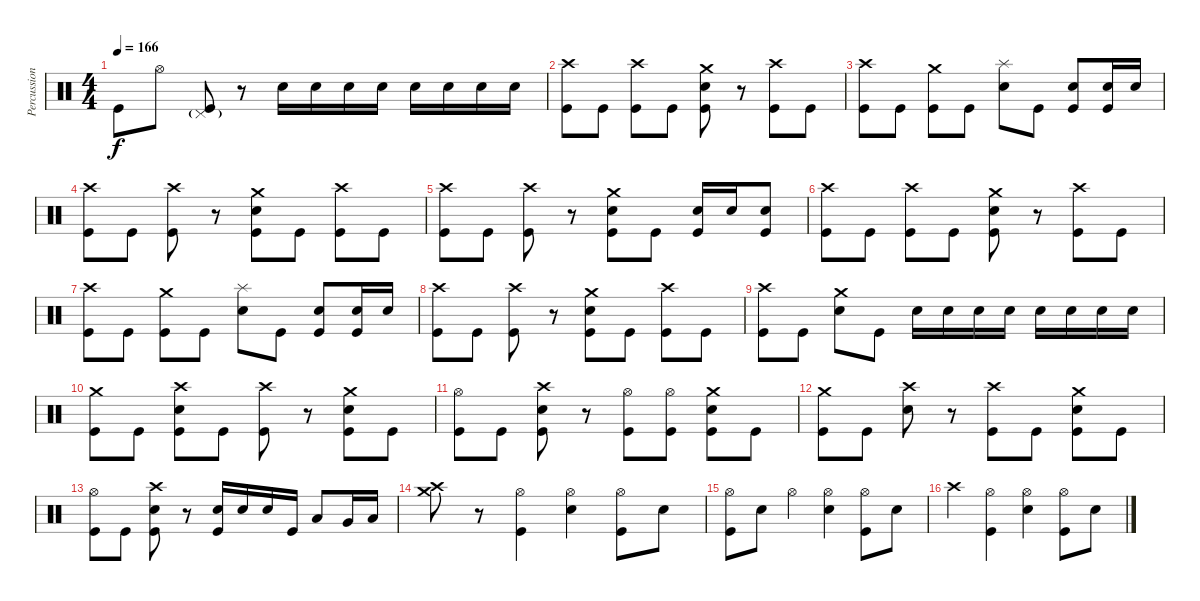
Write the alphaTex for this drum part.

\track ("Percussion" "Percussion") {instrument percussion}
\staff {score}
\articulation defaults
\ts (4 4)
\tempo 166
\clef neutral
\ks c "Kick (hit)".8{dy f} "Hi-Hat (open)".8
("Pedal Hi-Hat (hit)"{g} "Kick (hit)").8 r.8 "Electric Snare (hit)".16 "Electric Snare (hit)".16 "Electric Snare (hit)".16 "Electric Snare (hit)".16 "Electric Snare (hit)".16 "Electric Snare (hit)".16 "Electric Snare (hit)".16 "Electric Snare (hit)".16 |
("Crash high (hit)" "Kick (hit)").8 "Kick (hit)".8 ("Crash high (hit)" "Kick (hit)").8 "Kick (hit)".8 ("Crash medium (hit)" "Electric Snare (hit)" "Kick (hit)").8 r.8 ("Crash high (hit)" "Kick (hit)").8 "Kick (hit)".8 |
("Crash high (hit)" "Kick (hit)").8 "Kick (hit)".8 ("Crash medium (hit)" "Kick (hit)").8 "Kick (hit)".8 ("Splash (hit)" "Electric Snare (hit)").8 "Kick (hit)".8 ("Electric Snare (hit)" "Kick (hit)").8 ("Electric Snare (hit)" "Kick (hit)").16 "Electric Snare (hit)".16 |
("Crash high (hit)" "Kick (hit)").8 "Kick (hit)".8 ("Crash high (hit)" "Kick (hit)").8 r.8 ("Crash medium (hit)" "Electric Snare (hit)" "Kick (hit)").8 "Kick (hit)".8 ("Crash high (hit)" "Kick (hit)").8 "Kick (hit)".8 |
("Crash high (hit)" "Kick (hit)").8 "Kick (hit)".8 ("Crash high (hit)" "Kick (hit)").8 r.8 ("Crash medium (hit)" "Electric Snare (hit)" "Kick (hit)").8 "Kick (hit)".8 ("Electric Snare (hit)" "Kick (hit)").16 "Electric Snare (hit)".16 ("Electric Snare (hit)" "Kick (hit)").8 |
("Crash high (hit)" "Kick (hit)").8 "Kick (hit)".8 ("Crash high (hit)" "Kick (hit)").8 "Kick (hit)".8 ("Crash medium (hit)" "Electric Snare (hit)" "Kick (hit)").8 r.8 ("Crash high (hit)" "Kick (hit)").8 "Kick (hit)".8 |
("Crash high (hit)" "Kick (hit)").8 "Kick (hit)".8 ("Crash medium (hit)" "Kick (hit)").8 "Kick (hit)".8 ("Splash (hit)" "Electric Snare (hit)").8 "Kick (hit)".8 ("Electric Snare (hit)" "Kick (hit)").8 ("Electric Snare (hit)" "Kick (hit)").16 "Electric Snare (hit)".16 |
("Crash high (hit)" "Kick (hit)").8 "Kick (hit)".8 ("Crash high (hit)" "Kick (hit)").8 r.8 ("Crash medium (hit)" "Electric Snare (hit)" "Kick (hit)").8 "Kick (hit)".8 ("Crash high (hit)" "Kick (hit)").8 "Kick (hit)".8 |
("Crash high (hit)" "Kick (hit)").8 "Kick (hit)".8 ("Crash medium (hit)" "Electric Snare (hit)").8 "Kick (hit)".8 "Electric Snare (hit)".16 "Electric Snare (hit)".16 "Electric Snare (hit)".16 "Electric Snare (hit)".16 "Electric Snare (hit)".16 "Electric Snare (hit)".16 "Electric Snare (hit)".16 "Electric Snare (hit)".16 |
("Crash medium (hit)" "Kick (hit)").8 "Kick (hit)".8 ("Crash high (hit)" "Electric Snare (hit)" "Kick (hit)").8 "Kick (hit)".8 ("Crash high (hit)" "Kick (hit)").8 r.8 ("Crash medium (hit)" "Electric Snare (hit)" "Kick (hit)").8 "Kick (hit)".8 |
("Hi-Hat (open)" "Kick (hit)").8 "Kick (hit)".8 ("Crash high (hit)" "Electric Snare (hit)" "Kick (hit)").8 r.8 ("Hi-Hat (open)" "Kick (hit)").8 ("Hi-Hat (open)" "Kick (hit)").8 ("Crash medium (hit)" "Electric Snare (hit)" "Kick (hit)").8 "Kick (hit)".8 |
("Crash medium (hit)" "Kick (hit)").8 "Kick (hit)".8 ("Crash high (hit)" "Electric Snare (hit)").8 r.8 ("Crash high (hit)" "Kick (hit)").8 "Kick (hit)".8 ("Crash medium (hit)" "Electric Snare (hit)" "Kick (hit)").8 "Kick (hit)".8 |
("Hi-Hat (open)" "Kick (hit)").8 "Kick (hit)".8 ("Crash high (hit)" "Electric Snare (hit)" "Kick (hit)").8 r.8 ("Electric Snare (hit)" "Kick (hit)").16 "Electric Snare (hit)".16 "Electric Snare (hit)".16 "Kick (hit)".16 "Low Tom (hit)".8 "Very Low Tom (hit)".16 "Low Floor Tom (hit)".16 |
("Crash high (hit)" "Crash medium (hit)").8 r.8 ("Hi-Hat (open)" "Kick (hit)").4 ("Hi-Hat (open)" "Electric Snare (hit)").4 ("Hi-Hat (open)" "Kick (hit)").8 "Electric Snare (hit)".8 |
("Hi-Hat (open)" "Kick (hit)").8 "Electric Snare (hit)".8 "Hi-Hat (open)".4 ("Hi-Hat (open)" "Electric Snare (hit)").4 ("Hi-Hat (open)" "Kick (hit)").8 "Electric Snare (hit)".8 |
"Crash high (hit)".4 ("Hi-Hat (open)" "Kick (hit)").4 ("Hi-Hat (open)" "Electric Snare (hit)").4 ("Hi-Hat (open)" "Kick (hit)").8 "Electric Snare (hit)".8
